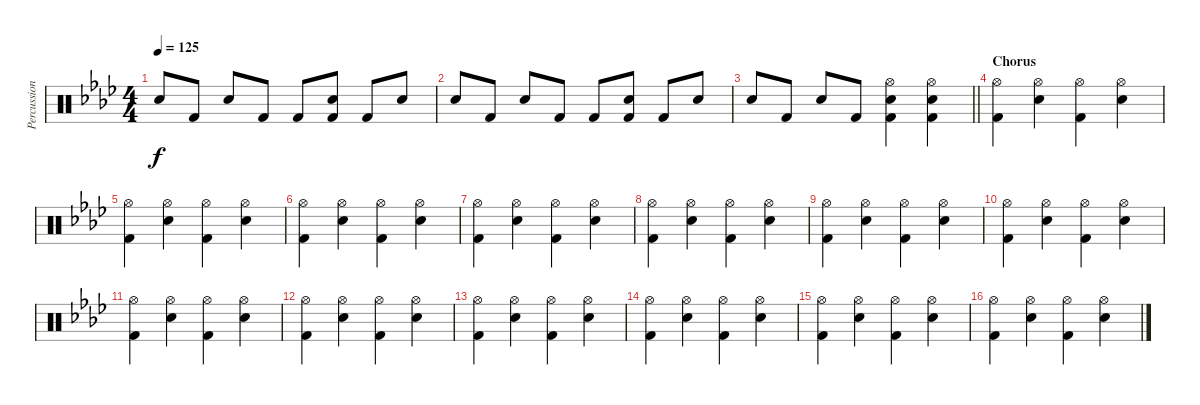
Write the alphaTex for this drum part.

\track ("Percussion" "Percussion") {instrument percussion}
\staff {score}
\articulation defaults
\ts (4 4)
\tempo 125
\clef neutral
\ks fminor "Snare (hit) 2".8{dy f} "Kick (hit) 2".8 "Snare (hit) 2".8 "Kick (hit) 2".8 "Kick (hit) 2".8
("Snare (hit) 2" "Kick (hit) 2").8 "Kick (hit) 2".8 "Snare (hit) 2".8 |
"Snare (hit) 2".8 "Kick (hit) 2".8 "Snare (hit) 2".8 "Kick (hit) 2".8 "Kick (hit) 2".8 ("Snare (hit) 2" "Kick (hit) 2").8 "Kick (hit) 2".8 "Snare (hit) 2".8 |
\barLineRight lightlight "Snare (hit) 2".8 "Kick (hit) 2".8 "Snare (hit) 2".8 "Kick (hit) 2".8
("Hi-Hat (open)" "Snare (hit) 2" "Kick (hit) 2").4 ("Hi-Hat (open)" "Snare (hit) 2" "Kick (hit) 2").4 |
\section ("" "Chorus")
("Hi-Hat (open)" "Kick (hit) 2").4 ("Hi-Hat (open)" "Snare (hit) 2").4 ("Hi-Hat (open)" "Kick (hit) 2").4 ("Hi-Hat (open)" "Snare (hit) 2").4 |
("Hi-Hat (open)" "Kick (hit) 2").4 ("Hi-Hat (open)" "Snare (hit) 2").4 ("Hi-Hat (open)" "Kick (hit) 2").4 ("Hi-Hat (open)" "Snare (hit) 2").4 |
("Hi-Hat (open)" "Kick (hit) 2").4 ("Hi-Hat (open)" "Snare (hit) 2").4 ("Hi-Hat (open)" "Kick (hit) 2").4 ("Hi-Hat (open)" "Snare (hit) 2").4 |
("Hi-Hat (open)" "Kick (hit) 2").4 ("Hi-Hat (open)" "Snare (hit) 2").4 ("Hi-Hat (open)" "Kick (hit) 2").4 ("Hi-Hat (open)" "Snare (hit) 2").4 |
("Hi-Hat (open)" "Kick (hit) 2").4 ("Hi-Hat (open)" "Snare (hit) 2").4 ("Hi-Hat (open)" "Kick (hit) 2").4 ("Hi-Hat (open)" "Snare (hit) 2").4 |
("Hi-Hat (open)" "Kick (hit) 2").4 ("Hi-Hat (open)" "Snare (hit) 2").4 ("Hi-Hat (open)" "Kick (hit) 2").4 ("Hi-Hat (open)" "Snare (hit) 2").4 |
("Hi-Hat (open)" "Kick (hit) 2").4 ("Hi-Hat (open)" "Snare (hit) 2").4 ("Hi-Hat (open)" "Kick (hit) 2").4 ("Hi-Hat (open)" "Snare (hit) 2").4 |
("Hi-Hat (open)" "Kick (hit) 2").4 ("Hi-Hat (open)" "Snare (hit) 2").4 ("Hi-Hat (open)" "Kick (hit) 2").4 ("Hi-Hat (open)" "Snare (hit) 2").4 |
("Hi-Hat (open)" "Kick (hit) 2").4 ("Hi-Hat (open)" "Snare (hit) 2").4 ("Hi-Hat (open)" "Kick (hit) 2").4 ("Hi-Hat (open)" "Snare (hit) 2").4 |
("Hi-Hat (open)" "Kick (hit) 2").4 ("Hi-Hat (open)" "Snare (hit) 2").4 ("Hi-Hat (open)" "Kick (hit) 2").4 ("Hi-Hat (open)" "Snare (hit) 2").4 |
("Hi-Hat (open)" "Kick (hit) 2").4 ("Hi-Hat (open)" "Snare (hit) 2").4 ("Hi-Hat (open)" "Kick (hit) 2").4 ("Hi-Hat (open)" "Snare (hit) 2").4 |
("Hi-Hat (open)" "Kick (hit) 2").4 ("Hi-Hat (open)" "Snare (hit) 2").4 ("Hi-Hat (open)" "Kick (hit) 2").4 ("Hi-Hat (open)" "Snare (hit) 2").4 |
("Hi-Hat (open)" "Kick (hit) 2").4 ("Hi-Hat (open)" "Snare (hit) 2").4 ("Hi-Hat (open)" "Kick (hit) 2").4 ("Hi-Hat (open)" "Snare (hit) 2").4
